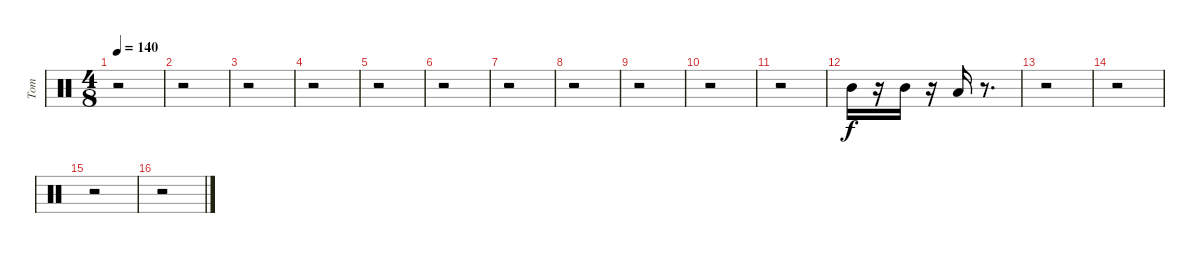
\track ("Tom" "Tom") {instrument percussion}
\staff {score}
\articulation defaults
\ts (4 8)
\tempo 140
\clef neutral
\ks c
r.2{dy mp} |
r.2 |
r.2 |
r.2 |
r.2 |
r.2 |
r.2 |
r.2 |
r.2 |
r.2 |
r.2 |
"Mid Tom (hit)".16{dy f} r.16 "Mid Tom (hit)".16 r.16 "Low Tom (hit)".16 r.8{d} |
r.2 |
r.2 |
r.2 |
r.2
